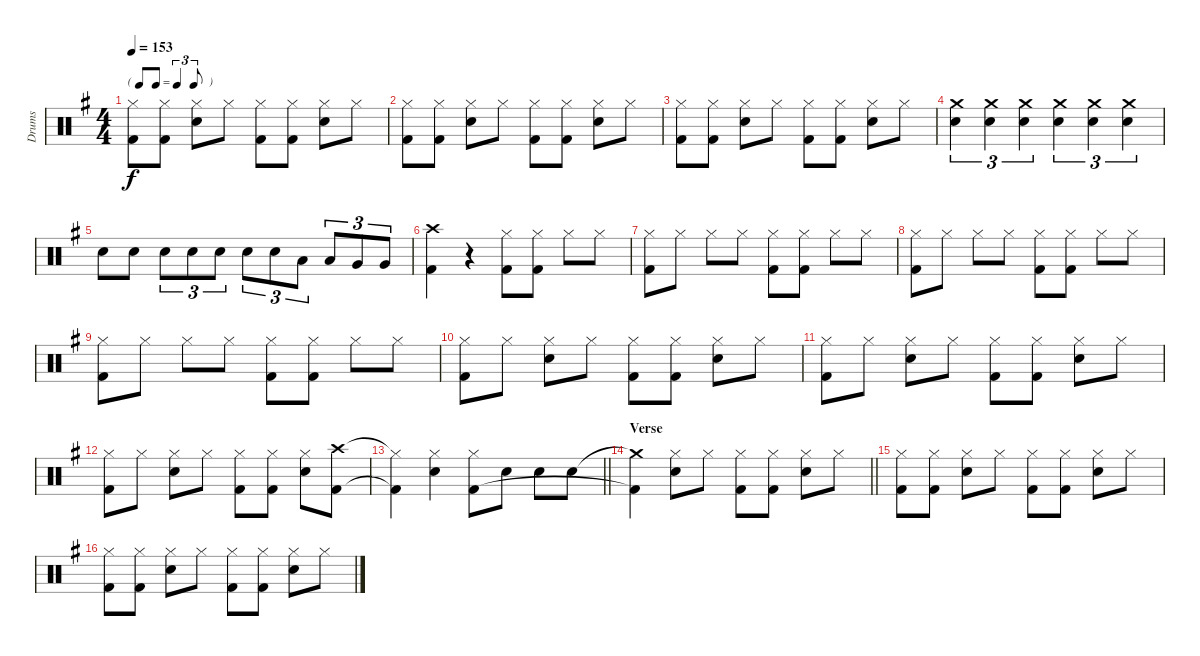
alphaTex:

\track ("Drums" "Drums") {instrument percussion}
\staff {score}
\articulation defaults
\ts (4 4)
\tf triplet8th
\tempo 153
\clef neutral
\ks g
("Hi-Hat (closed)" "Kick (hit) 2").8{dy f} ("Hi-Hat (closed)" "Kick (hit) 2").8 ("Hi-Hat (closed)" "Electric Snare (hit)").8 "Hi-Hat (closed)".8 ("Hi-Hat (closed)" "Kick (hit) 2").8 ("Hi-Hat (closed)" "Kick (hit) 2").8 ("Hi-Hat (closed)" "Electric Snare (hit)").8 "Hi-Hat (closed)".8 |
("Hi-Hat (closed)" "Kick (hit) 2").8 ("Hi-Hat (closed)" "Kick (hit) 2").8 ("Hi-Hat (closed)" "Electric Snare (hit)").8 "Hi-Hat (closed)".8 ("Hi-Hat (closed)" "Kick (hit) 2").8 ("Hi-Hat (closed)" "Kick (hit) 2").8 ("Hi-Hat (closed)" "Electric Snare (hit)").8 "Hi-Hat (closed)".8 |
("Hi-Hat (closed)" "Kick (hit) 2").8 ("Hi-Hat (closed)" "Kick (hit) 2").8 ("Hi-Hat (closed)" "Electric Snare (hit)").8 "Hi-Hat (closed)".8 ("Hi-Hat (closed)" "Kick (hit) 2").8 ("Hi-Hat (closed)" "Kick (hit) 2").8 ("Hi-Hat (closed)" "Electric Snare (hit)").8 "Hi-Hat (closed)".8 |
("Crash medium (hit)" "Electric Snare (hit)").4{tu (3 2)} ("Crash medium (hit)" "Electric Snare (hit)").4{tu (3 2)} ("Crash medium (hit)" "Electric Snare (hit)").4{tu (3 2)} ("Crash medium (hit)" "Electric Snare (hit)").4{tu (3 2)} ("Crash medium (hit)" "Electric Snare (hit)").4{tu (3 2)} ("Crash medium (hit)" "Electric Snare (hit)").4{tu (3 2)} |
"Electric Snare (hit)".8 "Electric Snare (hit)".8 "Electric Snare (hit)".8{tu (3 2)} "Electric Snare (hit)".8{tu (3 2)} "Electric Snare (hit)".8{tu (3 2)} "Electric Snare (hit)".8{tu (3 2)} "Electric Snare (hit)".8{tu (3 2)} "Low Tom (hit)".8{tu (3 2)} "Low Tom (hit)".8{tu (3 2)} "Very Low Tom (hit)".8{tu (3 2)} "Very Low Tom (hit)".8{tu (3 2)} |
("Crash high (hit)" "Kick (hit) 2").4 r.4 ("Hi-Hat (closed)" "Kick (hit) 2").8 ("Hi-Hat (closed)" "Kick (hit) 2").8 "Hi-Hat (closed)".8 "Hi-Hat (closed)".8 |
("Hi-Hat (closed)" "Kick (hit) 2").8 "Hi-Hat (closed)".8 "Hi-Hat (closed)".8 "Hi-Hat (closed)".8 ("Hi-Hat (closed)" "Kick (hit) 2").8 ("Hi-Hat (closed)" "Kick (hit) 2").8 "Hi-Hat (closed)".8 "Hi-Hat (closed)".8 |
("Hi-Hat (closed)" "Kick (hit) 2").8 "Hi-Hat (closed)".8 "Hi-Hat (closed)".8 "Hi-Hat (closed)".8 ("Hi-Hat (closed)" "Kick (hit) 2").8 ("Hi-Hat (closed)" "Kick (hit) 2").8 "Hi-Hat (closed)".8 "Hi-Hat (closed)".8 |
("Hi-Hat (closed)" "Kick (hit) 2").8 "Hi-Hat (closed)".8 "Hi-Hat (closed)".8 "Hi-Hat (closed)".8 ("Hi-Hat (closed)" "Kick (hit) 2").8 ("Hi-Hat (closed)" "Kick (hit) 2").8 "Hi-Hat (closed)".8 "Hi-Hat (closed)".8 |
("Hi-Hat (closed)" "Kick (hit) 2").8 "Hi-Hat (closed)".8 ("Hi-Hat (closed)" "Electric Snare (hit)").8 "Hi-Hat (closed)".8 ("Hi-Hat (closed)" "Kick (hit) 2").8 ("Hi-Hat (closed)" "Kick (hit) 2").8 ("Hi-Hat (closed)" "Electric Snare (hit)").8 "Hi-Hat (closed)".8 |
("Hi-Hat (closed)" "Kick (hit) 2").8 "Hi-Hat (closed)".8 ("Hi-Hat (closed)" "Electric Snare (hit)").8 "Hi-Hat (closed)".8 ("Hi-Hat (closed)" "Kick (hit) 2").8 ("Hi-Hat (closed)" "Kick (hit) 2").8 ("Hi-Hat (closed)" "Electric Snare (hit)").8 "Hi-Hat (closed)".8 |
("Hi-Hat (closed)" "Kick (hit) 2").8 "Hi-Hat (closed)".8 ("Hi-Hat (closed)" "Electric Snare (hit)").8 "Hi-Hat (closed)".8 ("Hi-Hat (closed)" "Kick (hit) 2").8 ("Hi-Hat (closed)" "Kick (hit) 2").8 ("Hi-Hat (closed)" "Electric Snare (hit)").8 ("Crash high (hit)" "Kick (hit) 2").8 |
\barLineRight lightlight
("Hi-Hat (closed)"{t} "Kick (hit) 2"{t}).4 ("Hi-Hat (closed)" "Electric Snare (hit)").4 ("Hi-Hat (closed)" "Kick (hit) 2").8 "Electric Snare (hit)".8 "Electric Snare (hit)".8 "Electric Snare (hit)".8 |
\section ("" "Verse")
\barLineRight lightlight
("Crash medium (hit)"{t} "Kick (hit) 2"{t}).4 ("Hi-Hat (closed)" "Electric Snare (hit)").8 "Hi-Hat (closed)".8 ("Hi-Hat (closed)" "Kick (hit) 2").8 ("Hi-Hat (closed)" "Kick (hit) 2").8 ("Hi-Hat (closed)" "Electric Snare (hit)").8 "Hi-Hat (closed)".8 |
("Hi-Hat (closed)" "Kick (hit) 2").8 ("Hi-Hat (closed)" "Kick (hit) 2").8 ("Hi-Hat (closed)" "Electric Snare (hit)").8 "Hi-Hat (closed)".8 ("Hi-Hat (closed)" "Kick (hit) 2").8 ("Hi-Hat (closed)" "Kick (hit) 2").8 ("Hi-Hat (closed)" "Electric Snare (hit)").8 "Hi-Hat (closed)".8 |
("Hi-Hat (closed)" "Kick (hit) 2").8 ("Hi-Hat (closed)" "Kick (hit) 2").8 ("Hi-Hat (closed)" "Electric Snare (hit)").8 "Hi-Hat (closed)".8 ("Hi-Hat (closed)" "Kick (hit) 2").8 ("Hi-Hat (closed)" "Kick (hit) 2").8 ("Hi-Hat (closed)" "Electric Snare (hit)").8 "Hi-Hat (closed)".8
